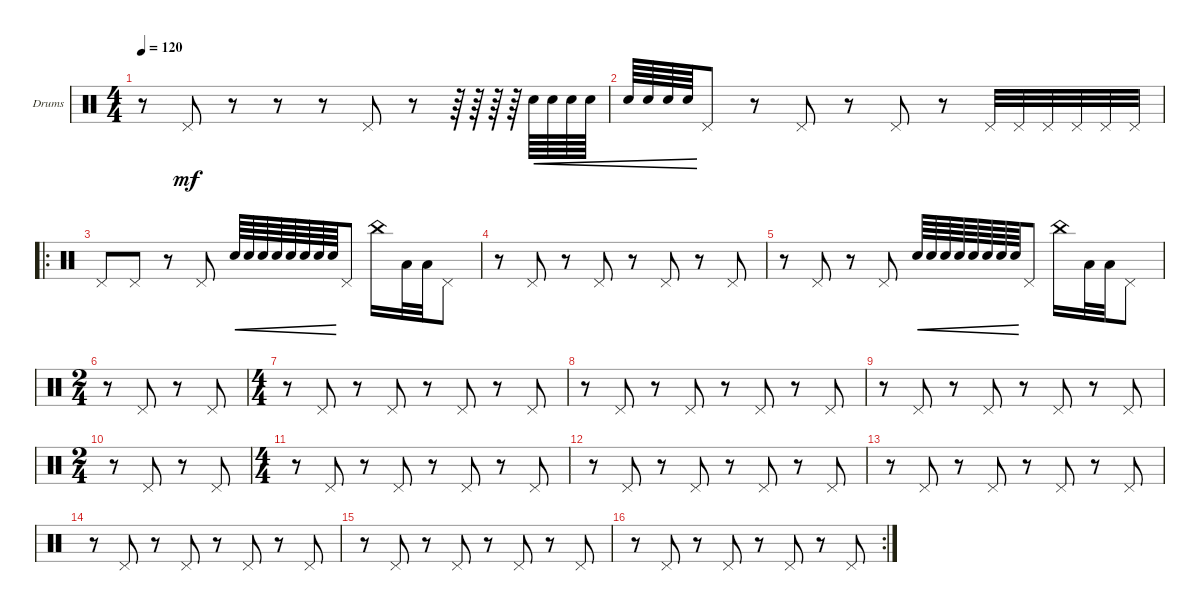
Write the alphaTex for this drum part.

\defaultSystemsLayout 4
\bracketExtendMode groupsimilarinstruments
\firstSystemTrackNameOrientation horizontal
\otherSystemsTrackNameOrientation horizontal
\track ("Drumkit" "Drums") {instrument percussion}
\staff {score}
\articulation defaults
\ts (4 4)
\tempo 120
\clef neutral
\ks c
r.8{dy mf} "Pedal Hi-Hat (hit)".8 r.8 r.8 r.8 "Pedal Hi-Hat (hit)".8 r.8 r.64 r.64 r.64 r.64 "Snare (hit) 2".64{cre} "Snare (hit) 2".64{cre} "Snare (hit) 2".64{cre} "Snare (hit) 2".64{cre} |
\scale
0.448889 "Snare (hit) 2".64{cre} "Snare (hit) 2".64{cre} "Snare (hit) 2".64{cre} "Snare (hit) 2".64{cre} "Pedal Hi-Hat (hit)".8 r.8 "Pedal Hi-Hat (hit)".8 r.8 "Pedal Hi-Hat (hit)".8 r.8 "Pedal Hi-Hat (hit)".32 "Pedal Hi-Hat (hit)".32 "Pedal Hi-Hat (hit)".32 "Pedal Hi-Hat (hit)".32 "Pedal Hi-Hat (hit)".32 "Pedal Hi-Hat (hit)".32 |
\ro
\scale
0.302222 "Pedal Hi-Hat (hit)".8 "Pedal Hi-Hat (hit)".8 r.8 "Pedal Hi-Hat (hit)".8 "Snare (hit) 2".64{cre} "Snare (hit) 2".64{cre} "Snare (hit) 2".64{cre} "Snare (hit) 2".64{cre} "Snare (hit) 2".64{cre} "Snare (hit) 2".64{cre} "Snare (hit) 2".64{cre} "Snare (hit) 2".64{cre} "Pedal Hi-Hat (hit)".8 "China (hit)".16 "Low Tom (hit)".32 "Low Tom (hit)".32 "Pedal Hi-Hat (hit)".8 |
\scale
0.248889 r.8 "Pedal Hi-Hat (hit)".8 r.8 "Pedal Hi-Hat (hit)".8 r.8 "Pedal Hi-Hat (hit)".8 r.8 "Pedal Hi-Hat (hit)".8 |
\scale
0.217054 r.8 "Pedal Hi-Hat (hit)".8 r.8 "Pedal Hi-Hat (hit)".8 "Snare (hit) 2".64{cre} "Snare (hit) 2".64{cre} "Snare (hit) 2".64{cre} "Snare (hit) 2".64{cre} "Snare (hit) 2".64{cre} "Snare (hit) 2".64{cre} "Snare (hit) 2".64{cre} "Snare (hit) 2".64{cre} "Pedal Hi-Hat (hit)".8 "China (hit)".16 "Low Tom (hit)".32 "Low Tom (hit)".32 "Pedal Hi-Hat (hit)".8 |
\ts (2 4)
\scale
0.391473 r.8 "Pedal Hi-Hat (hit)".8 r.8 "Pedal Hi-Hat (hit)".8 |
\ts (4 4)
\scale
0.391473 r.8 "Pedal Hi-Hat (hit)".8 r.8 "Pedal Hi-Hat (hit)".8 r.8 "Pedal Hi-Hat (hit)".8 r.8 "Pedal Hi-Hat (hit)".8 |
\scale
0.262911 r.8 "Pedal Hi-Hat (hit)".8 r.8 "Pedal Hi-Hat (hit)".8 r.8 "Pedal Hi-Hat (hit)".8 r.8 "Pedal Hi-Hat (hit)".8 |
\scale
0.262911 r.8 "Pedal Hi-Hat (hit)".8 r.8 "Pedal Hi-Hat (hit)".8 r.8 "Pedal Hi-Hat (hit)".8 r.8 "Pedal Hi-Hat (hit)".8 |
\ts (2 4)
\scale
0.474178 r.8 "Pedal Hi-Hat (hit)".8 r.8 "Pedal Hi-Hat (hit)".8 |
\ts (4 4)
\scale
0.474178 r.8 "Pedal Hi-Hat (hit)".8 r.8 "Pedal Hi-Hat (hit)".8 r.8 "Pedal Hi-Hat (hit)".8 r.8 "Pedal Hi-Hat (hit)".8 |
\scale
0.262911 r.8 "Pedal Hi-Hat (hit)".8 r.8 "Pedal Hi-Hat (hit)".8 r.8 "Pedal Hi-Hat (hit)".8 r.8 "Pedal Hi-Hat (hit)".8 |
\scale
0.262911 r.8 "Pedal Hi-Hat (hit)".8 r.8 "Pedal Hi-Hat (hit)".8 r.8 "Pedal Hi-Hat (hit)".8 r.8 "Pedal Hi-Hat (hit)".8 |
r.8 "Pedal Hi-Hat (hit)".8 r.8 "Pedal Hi-Hat (hit)".8 r.8 "Pedal Hi-Hat (hit)".8 r.8 "Pedal Hi-Hat (hit)".8 |
r.8 "Pedal Hi-Hat (hit)".8 r.8 "Pedal Hi-Hat (hit)".8 r.8 "Pedal Hi-Hat (hit)".8 r.8 "Pedal Hi-Hat (hit)".8 |
\rc 2
r.8 "Pedal Hi-Hat (hit)".8 r.8 "Pedal Hi-Hat (hit)".8 r.8 "Pedal Hi-Hat (hit)".8 r.8 "Pedal Hi-Hat (hit)".8
